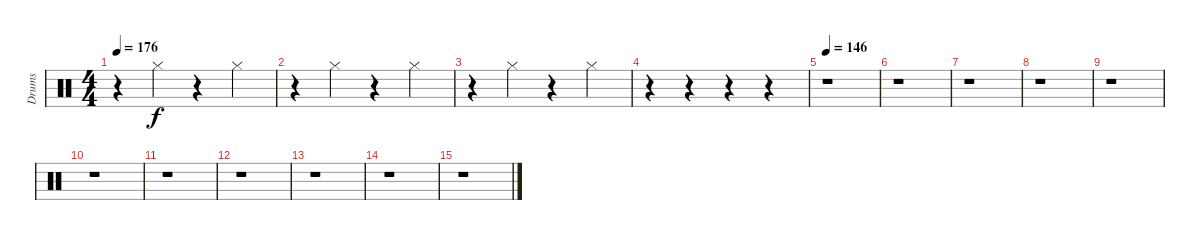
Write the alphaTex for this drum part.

\track ("Drums" "Drums") {instrument percussion}
\staff {score}
\articulation defaults
\ts (4 4)
\tempo 176
\clef neutral
\ks c
r.4{dy f} "Hi-Hat (closed)".4 r.4 "Hi-Hat (closed)".4 |
r.4 "Hi-Hat (closed)".4 r.4 "Hi-Hat (closed)".4 |
r.4 "Hi-Hat (closed)".4 r.4 "Hi-Hat (closed)".4 |
r.4 r.4 r.4 r.4 |
\tempo 146
r.1 |
r.1 |
r.1 |
r.1 |
r.1 |
r.1 |
r.1 |
r.1 |
r.1 |
r.1 |
r.1
